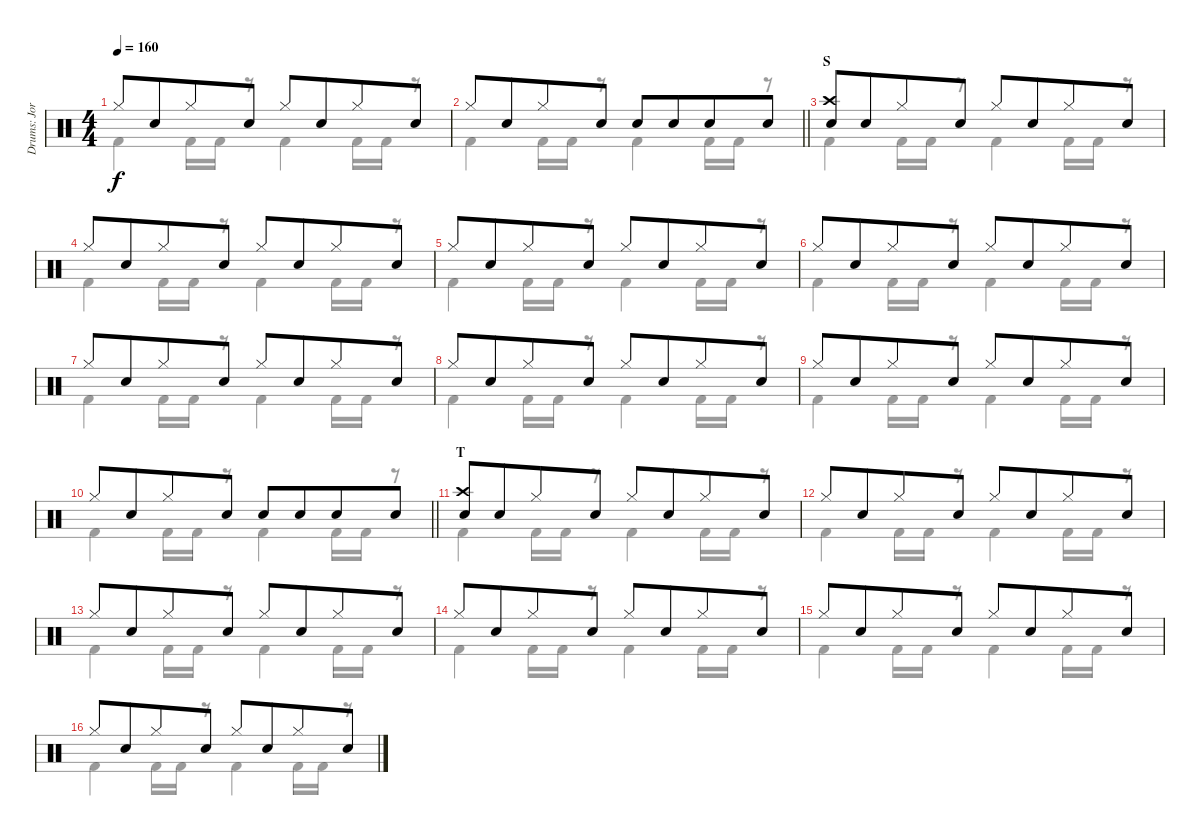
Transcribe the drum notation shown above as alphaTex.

\track ("Drums: Jorg" "Drums: Jor") {instrument percussion}
\staff {score}
\articulation defaults
\voice
\ts (4 4)
\tempo 160
\clef neutral
\ks c "Hi-Hat (closed)".8{dy f} "Snare (hit) 2".8{beam merge} "Hi-Hat (closed)".8 "Snare (hit) 2".8 "Hi-Hat (closed)".8 "Snare (hit) 2".8{beam merge} "Hi-Hat (closed)".8 "Snare (hit) 2".8
|
\barLineRight lightlight "Hi-Hat (closed)".8 "Snare (hit) 2".8{beam merge} "Hi-Hat (closed)".8 "Snare (hit) 2".8 "Snare (hit) 2".8 "Snare (hit) 2".8{beam merge} "Snare (hit) 2".8 "Snare (hit) 2".8
|
\section ("" "S")
("Crash high (hit)" "Snare (hit)").8 "Snare (hit) 2".8{beam merge} "Hi-Hat (closed)".8 "Snare (hit) 2".8{beam split} "Hi-Hat (closed)".8 "Snare (hit) 2".8{beam merge} "Hi-Hat (closed)".8 "Snare (hit) 2".8 |
"Hi-Hat (closed)".8 "Snare (hit) 2".8{beam merge} "Hi-Hat (closed)".8 "Snare (hit) 2".8{beam split} "Hi-Hat (closed)".8 "Snare (hit) 2".8{beam merge} "Hi-Hat (closed)".8 "Snare (hit) 2".8 |
"Hi-Hat (closed)".8 "Snare (hit) 2".8{beam merge} "Hi-Hat (closed)".8 "Snare (hit) 2".8{beam split} "Hi-Hat (closed)".8 "Snare (hit) 2".8{beam merge} "Hi-Hat (closed)".8 "Snare (hit) 2".8 |
"Hi-Hat (closed)".8 "Snare (hit) 2".8{beam merge} "Hi-Hat (closed)".8 "Snare (hit) 2".8{beam split} "Hi-Hat (closed)".8 "Snare (hit) 2".8{beam merge} "Hi-Hat (closed)".8 "Snare (hit) 2".8 |
"Hi-Hat (closed)".8 "Snare (hit) 2".8{beam merge} "Hi-Hat (closed)".8 "Snare (hit) 2".8{beam split} "Hi-Hat (closed)".8 "Snare (hit) 2".8{beam merge} "Hi-Hat (closed)".8 "Snare (hit) 2".8 |
"Hi-Hat (closed)".8 "Snare (hit) 2".8{beam merge} "Hi-Hat (closed)".8 "Snare (hit) 2".8{beam split} "Hi-Hat (closed)".8 "Snare (hit) 2".8{beam merge} "Hi-Hat (closed)".8 "Snare (hit) 2".8 |
"Hi-Hat (closed)".8 "Snare (hit) 2".8{beam merge} "Hi-Hat (closed)".8 "Snare (hit) 2".8 "Hi-Hat (closed)".8 "Snare (hit) 2".8{beam merge} "Hi-Hat (closed)".8 "Snare (hit) 2".8 |
\barLineRight lightlight "Hi-Hat (closed)".8 "Snare (hit) 2".8{beam merge} "Hi-Hat (closed)".8 "Snare (hit) 2".8 "Snare (hit) 2".8 "Snare (hit) 2".8{beam merge} "Snare (hit) 2".8 "Snare (hit) 2".8
|
\section ("" "T")
("Crash high (hit)" "Snare (hit)").8 "Snare (hit) 2".8{beam merge} "Hi-Hat (closed)".8 "Snare (hit) 2".8{beam split} "Hi-Hat (closed)".8 "Snare (hit) 2".8{beam merge} "Hi-Hat (closed)".8 "Snare (hit) 2".8 |
"Hi-Hat (closed)".8 "Snare (hit) 2".8{beam merge} "Hi-Hat (closed)".8 "Snare (hit) 2".8{beam split} "Hi-Hat (closed)".8 "Snare (hit) 2".8{beam merge} "Hi-Hat (closed)".8 "Snare (hit) 2".8 |
"Hi-Hat (closed)".8 "Snare (hit) 2".8{beam merge} "Hi-Hat (closed)".8 "Snare (hit) 2".8{beam split} "Hi-Hat (closed)".8 "Snare (hit) 2".8{beam merge} "Hi-Hat (closed)".8 "Snare (hit) 2".8 |
"Hi-Hat (closed)".8 "Snare (hit) 2".8{beam merge} "Hi-Hat (closed)".8 "Snare (hit) 2".8{beam split} "Hi-Hat (closed)".8 "Snare (hit) 2".8{beam merge} "Hi-Hat (closed)".8 "Snare (hit) 2".8 |
"Hi-Hat (closed)".8 "Snare (hit) 2".8{beam merge} "Hi-Hat (closed)".8 "Snare (hit) 2".8{beam split} "Hi-Hat (closed)".8 "Snare (hit) 2".8{beam merge} "Hi-Hat (closed)".8 "Snare (hit) 2".8 |
"Hi-Hat (closed)".8 "Snare (hit) 2".8{beam merge} "Hi-Hat (closed)".8 "Snare (hit) 2".8{beam split} "Hi-Hat (closed)".8 "Snare (hit) 2".8{beam merge} "Hi-Hat (closed)".8 "Snare (hit) 2".8
\voice
\clef neutral
\ottava regular
\simile none
\ks c "Kick (hit) 2".4{dy f} "Kick (hit) 2".16 "Kick (hit) 2".16
r.8 "Kick (hit) 2".4 "Kick (hit) 2".16 "Kick (hit) 2".16 r.8 |
\barLineRight lightlight "Kick (hit) 2".4 "Kick (hit) 2".16 "Kick (hit) 2".16
r.8 "Kick (hit) 2".4 "Kick (hit) 2".16 "Kick (hit) 2".16 r.8 |
"Kick (hit) 2".4 "Kick (hit) 2".16 "Kick (hit) 2".16 r.8 "Kick (hit) 2".4 "Kick (hit) 2".16 "Kick (hit) 2".16 r.8 |
"Kick (hit) 2".4 "Kick (hit) 2".16 "Kick (hit) 2".16 r.8 "Kick (hit) 2".4 "Kick (hit) 2".16 "Kick (hit) 2".16 r.8 |
"Kick (hit) 2".4 "Kick (hit) 2".16 "Kick (hit) 2".16 r.8 "Kick (hit) 2".4 "Kick (hit) 2".16 "Kick (hit) 2".16 r.8 |
"Kick (hit) 2".4 "Kick (hit) 2".16 "Kick (hit) 2".16 r.8 "Kick (hit) 2".4 "Kick (hit) 2".16 "Kick (hit) 2".16 r.8 |
"Kick (hit) 2".4 "Kick (hit) 2".16 "Kick (hit) 2".16 r.8 "Kick (hit) 2".4 "Kick (hit) 2".16 "Kick (hit) 2".16 r.8 |
"Kick (hit) 2".4 "Kick (hit) 2".16 "Kick (hit) 2".16 r.8 "Kick (hit) 2".4 "Kick (hit) 2".16 "Kick (hit) 2".16 r.8 |
"Kick (hit) 2".4 "Kick (hit) 2".16 "Kick (hit) 2".16 r.8 "Kick (hit) 2".4 "Kick (hit) 2".16 "Kick (hit) 2".16 r.8 |
\barLineRight lightlight "Kick (hit) 2".4 "Kick (hit) 2".16 "Kick (hit) 2".16
r.8 "Kick (hit) 2".4 "Kick (hit) 2".16 "Kick (hit) 2".16 r.8 |
"Kick (hit) 2".4 "Kick (hit) 2".16 "Kick (hit) 2".16 r.8 "Kick (hit) 2".4 "Kick (hit) 2".16 "Kick (hit) 2".16 r.8 |
"Kick (hit) 2".4 "Kick (hit) 2".16 "Kick (hit) 2".16 r.8 "Kick (hit) 2".4 "Kick (hit) 2".16 "Kick (hit) 2".16 r.8 |
"Kick (hit) 2".4 "Kick (hit) 2".16 "Kick (hit) 2".16 r.8 "Kick (hit) 2".4 "Kick (hit) 2".16 "Kick (hit) 2".16 r.8 |
"Kick (hit) 2".4 "Kick (hit) 2".16 "Kick (hit) 2".16 r.8 "Kick (hit) 2".4 "Kick (hit) 2".16 "Kick (hit) 2".16 r.8 |
"Kick (hit) 2".4 "Kick (hit) 2".16 "Kick (hit) 2".16 r.8 "Kick (hit) 2".4 "Kick (hit) 2".16 "Kick (hit) 2".16 r.8 |
"Kick (hit) 2".4 "Kick (hit) 2".16 "Kick (hit) 2".16 r.8 "Kick (hit) 2".4 "Kick (hit) 2".16 "Kick (hit) 2".16 r.8
